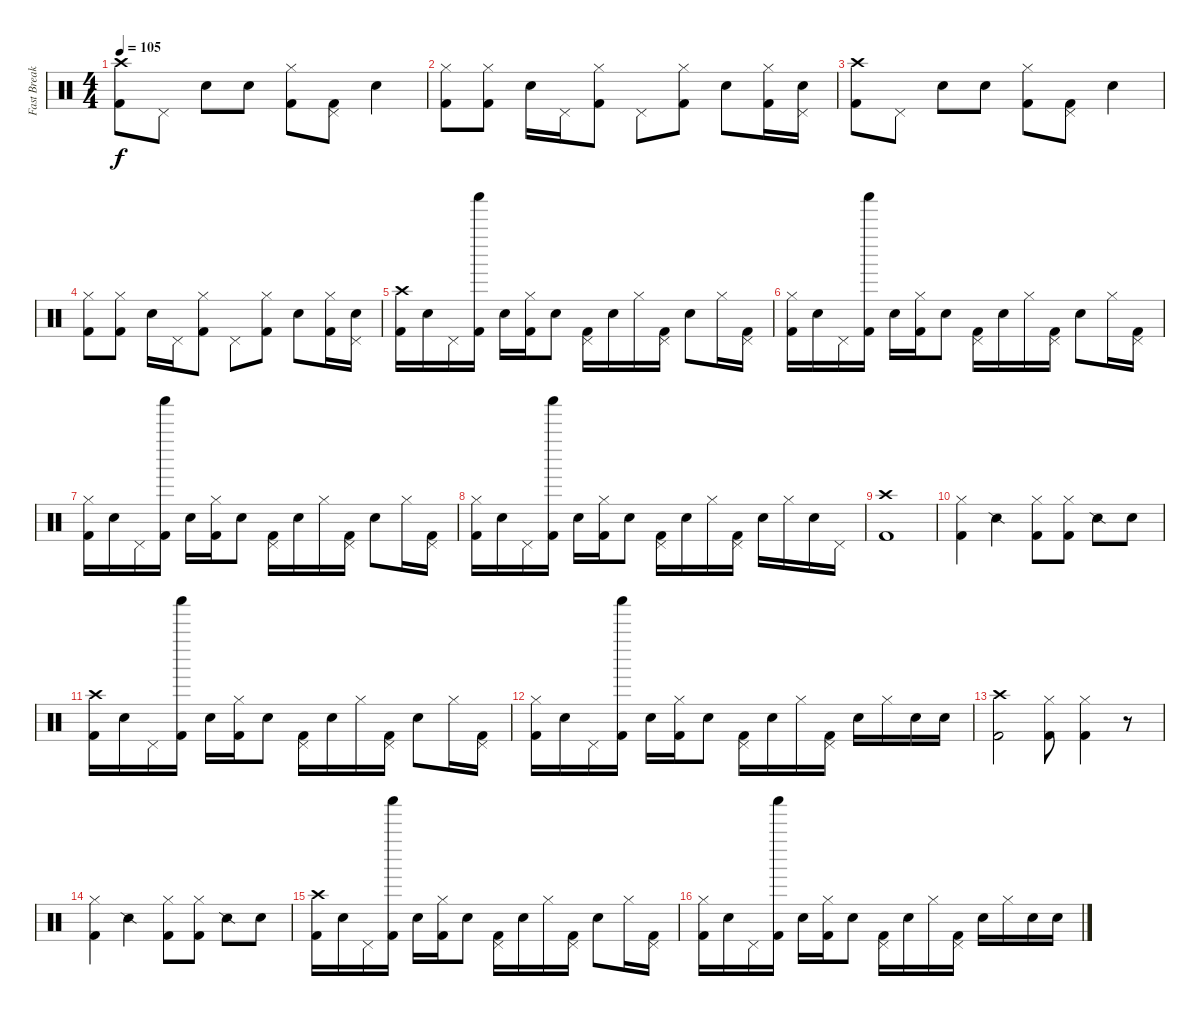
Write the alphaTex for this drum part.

\track ("Fast Break Drums" "Fast Break") {instrument percussion}
\staff {score}
\articulation defaults
\ts (4 4)
\tempo 105
\clef neutral
\ks c
("Kick (hit) 2" "Crash high (hit)").8{dy f} "Pedal Hi-Hat (hit)".8 "Snare (hit) 2".8 "Electric Snare (hit)".8 ("Kick (hit) 2" "Hi-Hat (closed)").8 ("Kick (hit) 2" "Pedal Hi-Hat (hit)").8 "Snare (hit) 2".4 |
("Kick (hit) 2" "Hi-Hat (closed)").8 ("Kick (hit) 2" "Hi-Hat (closed)").8 "Snare (hit) 2".16 "Pedal Hi-Hat (hit)".16 ("Kick (hit) 2" "Hi-Hat (closed)").8 "Pedal Hi-Hat (hit)".8 ("Kick (hit) 2" "Hi-Hat (closed)").8 "Snare (hit) 2".8 ("Kick (hit) 2" "Hi-Hat (closed)").16 ("Electric Snare (hit)" "Pedal Hi-Hat (hit)").16 |
("Kick (hit) 2" "Crash high (hit)").8 "Pedal Hi-Hat (hit)".8 "Snare (hit) 2".8 "Electric Snare (hit)".8 ("Kick (hit) 2" "Hi-Hat (closed)").8 ("Kick (hit) 2" "Pedal Hi-Hat (hit)").8 "Snare (hit) 2".4 |
("Kick (hit) 2" "Hi-Hat (closed)").8 ("Kick (hit) 2" "Hi-Hat (closed)").8 "Snare (hit) 2".16 "Pedal Hi-Hat (hit)".16 ("Kick (hit) 2" "Hi-Hat (closed)").8 "Pedal Hi-Hat (hit)".8 ("Kick (hit) 2" "Hi-Hat (closed)").8 "Snare (hit) 2".8 ("Kick (hit) 2" "Hi-Hat (closed)").16 ("Electric Snare (hit)" "Pedal Hi-Hat (hit)").16 |
("Kick (hit) 2" "Crash high (hit)").16 "Electric Snare (hit)".16 "Pedal Hi-Hat (hit)".16 ("Kick (hit) 2" "Shaker (hit)").16 "Snare (hit) 2".16 ("Kick (hit) 2" "Hi-Hat (closed)").16 "Snare (hit) 2".8 ("Kick (hit) 2" "Pedal Hi-Hat (hit)").16 "Electric Snare (hit)".16 "Hi-Hat (closed)".16 ("Kick (hit) 2" "Pedal Hi-Hat (hit)").16 "Snare (hit) 2".8 "Hi-Hat (closed)".16 ("Kick (hit) 2" "Pedal Hi-Hat (hit)").16 |
("Kick (hit) 2" "Hi-Hat (closed)").16 "Electric Snare (hit)".16 "Pedal Hi-Hat (hit)".16 ("Kick (hit) 2" "Shaker (hit)").16 "Snare (hit) 2".16 ("Kick (hit) 2" "Hi-Hat (closed)").16 "Snare (hit) 2".8 ("Kick (hit) 2" "Pedal Hi-Hat (hit)").16 "Electric Snare (hit)".16 "Hi-Hat (closed)".16 ("Kick (hit) 2" "Pedal Hi-Hat (hit)").16 "Snare (hit) 2".8 "Hi-Hat (closed)".16 ("Kick (hit) 2" "Pedal Hi-Hat (hit)").16 |
("Kick (hit) 2" "Hi-Hat (closed)").16 "Electric Snare (hit)".16 "Pedal Hi-Hat (hit)".16 ("Kick (hit) 2" "Shaker (hit)").16 "Snare (hit) 2".16 ("Kick (hit) 2" "Hi-Hat (closed)").16 "Snare (hit) 2".8 ("Kick (hit) 2" "Pedal Hi-Hat (hit)").16 "Electric Snare (hit)".16 "Hi-Hat (closed)".16 ("Kick (hit) 2" "Pedal Hi-Hat (hit)").16 "Snare (hit) 2".8 "Hi-Hat (closed)".16 ("Kick (hit) 2" "Pedal Hi-Hat (hit)").16 |
("Kick (hit) 2" "Hi-Hat (closed)").16 "Electric Snare (hit)".16 "Pedal Hi-Hat (hit)".16 ("Kick (hit) 2" "Shaker (hit)").16 "Snare (hit) 2".16 ("Kick (hit) 2" "Hi-Hat (closed)").16 "Snare (hit) 2".8 ("Kick (hit) 2" "Pedal Hi-Hat (hit)").16 "Electric Snare (hit)".16 "Hi-Hat (closed)".16 ("Kick (hit) 2" "Pedal Hi-Hat (hit)").16 "Snare (hit) 2".16 "Hi-Hat (closed)".16 "Snare (hit) 2".16 "Pedal Hi-Hat (hit)".16 |
("Kick (hit) 2" "Crash high (hit)").1 |
("Kick (hit) 2" "Hi-Hat (closed)").4 "Snare (side stick) 2".4 ("Kick (hit) 2" "Hi-Hat (closed)").8 ("Kick (hit) 2" "Hi-Hat (closed)").8 "Snare (side stick) 2".8 "Snare (hit) 2".8 |
("Kick (hit) 2" "Crash high (hit)").16 "Electric Snare (hit)".16 "Pedal Hi-Hat (hit)".16 ("Kick (hit) 2" "Shaker (hit)").16 "Snare (hit) 2".16 ("Kick (hit) 2" "Hi-Hat (closed)").16 "Snare (hit) 2".8 ("Kick (hit) 2" "Pedal Hi-Hat (hit)").16 "Electric Snare (hit)".16 "Hi-Hat (closed)".16 ("Kick (hit) 2" "Pedal Hi-Hat (hit)").16 "Snare (hit) 2".8 "Hi-Hat (closed)".16 ("Kick (hit) 2" "Pedal Hi-Hat (hit)").16 |
("Kick (hit) 2" "Hi-Hat (closed)").16 "Electric Snare (hit)".16 "Pedal Hi-Hat (hit)".16 ("Kick (hit) 2" "Shaker (hit)").16 "Snare (hit) 2".16 ("Kick (hit) 2" "Hi-Hat (closed)").16 "Snare (hit) 2".8 ("Kick (hit) 2" "Pedal Hi-Hat (hit)").16 "Electric Snare (hit)".16 "Hi-Hat (closed)".16 ("Kick (hit) 2" "Pedal Hi-Hat (hit)").16 "Snare (hit) 2".16 "Hi-Hat (closed)".16 "Snare (hit) 2".16 "Electric Snare (hit)".16 |
("Kick (hit) 2" "Crash high (hit)").2 ("Kick (hit) 2" "Hi-Hat (closed)").8 ("Kick (hit) 2" "Hi-Hat (closed)").4 r.8 |
("Kick (hit) 2" "Hi-Hat (closed)").4 "Snare (side stick) 2".4 ("Kick (hit) 2" "Hi-Hat (closed)").8 ("Kick (hit) 2" "Hi-Hat (closed)").8 "Snare (side stick) 2".8 "Snare (hit) 2".8 |
("Kick (hit) 2" "Crash high (hit)").16 "Electric Snare (hit)".16 "Pedal Hi-Hat (hit)".16 ("Kick (hit) 2" "Shaker (hit)").16 "Snare (hit) 2".16 ("Kick (hit) 2" "Hi-Hat (closed)").16 "Snare (hit) 2".8 ("Kick (hit) 2" "Pedal Hi-Hat (hit)").16 "Electric Snare (hit)".16 "Hi-Hat (closed)".16 ("Kick (hit) 2" "Pedal Hi-Hat (hit)").16 "Snare (hit) 2".8 "Hi-Hat (closed)".16 ("Kick (hit) 2" "Pedal Hi-Hat (hit)").16 |
("Kick (hit) 2" "Hi-Hat (closed)").16 "Electric Snare (hit)".16 "Pedal Hi-Hat (hit)".16 ("Kick (hit) 2" "Shaker (hit)").16 "Snare (hit) 2".16 ("Kick (hit) 2" "Hi-Hat (closed)").16 "Snare (hit) 2".8 ("Kick (hit) 2" "Pedal Hi-Hat (hit)").16 "Electric Snare (hit)".16 "Hi-Hat (closed)".16 ("Kick (hit) 2" "Pedal Hi-Hat (hit)").16 "Snare (hit) 2".16 "Hi-Hat (closed)".16 "Snare (hit) 2".16 "Electric Snare (hit)".16
